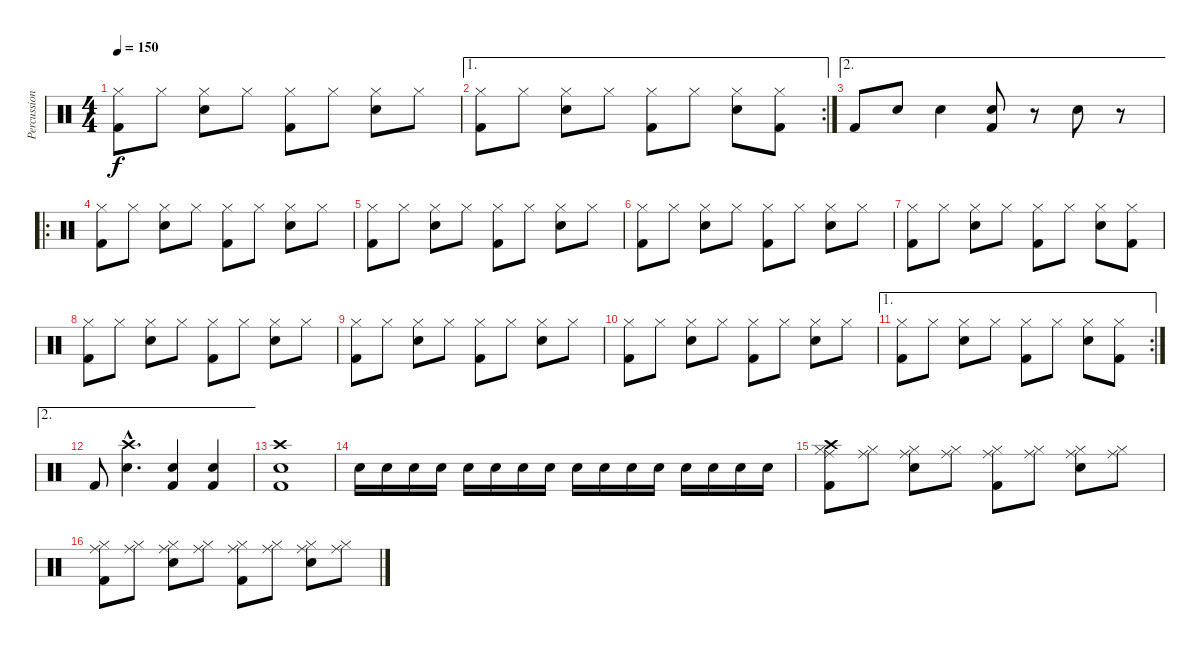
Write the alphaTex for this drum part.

\track ("Percussion" "Percussion") {instrument percussion}
\staff {score}
\articulation defaults
\ts (4 4)
\tempo 150
\clef neutral
\ks c
("Hi-Hat (closed)" "Kick (hit) 2").8{dy f} "Hi-Hat (closed)".8 ("Hi-Hat (closed)" "Electric Snare (hit)").8 "Hi-Hat (closed)".8 ("Hi-Hat (closed)" "Kick (hit) 2").8 "Hi-Hat (closed)".8 ("Hi-Hat (closed)" "Electric Snare (hit)").8 "Hi-Hat (closed)".8 |
\ae 1
\rc 2
("Hi-Hat (closed)" "Kick (hit) 2").8 "Hi-Hat (closed)".8 ("Hi-Hat (closed)" "Electric Snare (hit)").8 "Hi-Hat (closed)".8 ("Hi-Hat (closed)" "Kick (hit) 2").8 "Hi-Hat (closed)".8 ("Hi-Hat (closed)" "Electric Snare (hit)").8 ("Hi-Hat (closed)" "Kick (hit) 2").8 |
\ae 2 "Kick (hit) 2".8 "Electric Snare (hit)".8 "Electric Snare (hit)".4
("Electric Snare (hit)" "Kick (hit) 2").8 r.8 "Electric Snare (hit)".8 r.8 |
\ro
("Hi-Hat (closed)" "Kick (hit) 2").8 "Hi-Hat (closed)".8 ("Hi-Hat (closed)" "Electric Snare (hit)").8 "Hi-Hat (closed)".8 ("Hi-Hat (closed)" "Kick (hit) 2").8 "Hi-Hat (closed)".8 ("Hi-Hat (closed)" "Electric Snare (hit)").8 "Hi-Hat (closed)".8 |
("Hi-Hat (closed)" "Kick (hit) 2").8 "Hi-Hat (closed)".8 ("Hi-Hat (closed)" "Electric Snare (hit)").8 "Hi-Hat (closed)".8 ("Hi-Hat (closed)" "Kick (hit) 2").8 "Hi-Hat (closed)".8 ("Hi-Hat (closed)" "Electric Snare (hit)").8 "Hi-Hat (closed)".8 |
("Hi-Hat (closed)" "Kick (hit) 2").8 "Hi-Hat (closed)".8 ("Hi-Hat (closed)" "Electric Snare (hit)").8 "Hi-Hat (closed)".8 ("Hi-Hat (closed)" "Kick (hit) 2").8 "Hi-Hat (closed)".8 ("Hi-Hat (closed)" "Electric Snare (hit)").8 "Hi-Hat (closed)".8 |
("Hi-Hat (closed)" "Kick (hit) 2").8 "Hi-Hat (closed)".8 ("Hi-Hat (closed)" "Electric Snare (hit)").8 "Hi-Hat (closed)".8 ("Hi-Hat (closed)" "Kick (hit) 2").8 "Hi-Hat (closed)".8 ("Hi-Hat (closed)" "Electric Snare (hit)").8 ("Hi-Hat (closed)" "Kick (hit) 2").8 |
("Hi-Hat (closed)" "Kick (hit) 2").8 "Hi-Hat (closed)".8 ("Hi-Hat (closed)" "Electric Snare (hit)").8 "Hi-Hat (closed)".8 ("Hi-Hat (closed)" "Kick (hit) 2").8 "Hi-Hat (closed)".8 ("Hi-Hat (closed)" "Electric Snare (hit)").8 "Hi-Hat (closed)".8 |
("Hi-Hat (closed)" "Kick (hit) 2").8 "Hi-Hat (closed)".8 ("Hi-Hat (closed)" "Electric Snare (hit)").8 "Hi-Hat (closed)".8 ("Hi-Hat (closed)" "Kick (hit) 2").8 "Hi-Hat (closed)".8 ("Hi-Hat (closed)" "Electric Snare (hit)").8 "Hi-Hat (closed)".8 |
("Hi-Hat (closed)" "Kick (hit) 2").8 "Hi-Hat (closed)".8 ("Hi-Hat (closed)" "Electric Snare (hit)").8 "Hi-Hat (closed)".8 ("Hi-Hat (closed)" "Kick (hit) 2").8 "Hi-Hat (closed)".8 ("Hi-Hat (closed)" "Electric Snare (hit)").8 "Hi-Hat (closed)".8 |
\ae 1
\rc 2
("Hi-Hat (closed)" "Kick (hit) 2").8 "Hi-Hat (closed)".8 ("Hi-Hat (closed)" "Electric Snare (hit)").8 "Hi-Hat (closed)".8 ("Hi-Hat (closed)" "Kick (hit) 2").8 "Hi-Hat (closed)".8 ("Hi-Hat (closed)" "Electric Snare (hit)").8 ("Hi-Hat (closed)" "Kick (hit) 2").8 |
\ae 2 "Kick (hit) 2".8
("Crash high (hit)"{hac} "Electric Snare (hit)"{hac}).4{d} ("Kick (hit) 2" "Electric Snare (hit)").4 ("Kick (hit) 2" "Electric Snare (hit)").4 |
("Crash high (hit)" "Kick (hit) 2" "Electric Snare (hit)").1 |
"Electric Snare (hit)".16 "Electric Snare (hit)".16 "Electric Snare (hit)".16 "Electric Snare (hit)".16 "Electric Snare (hit)".16 "Electric Snare (hit)".16 "Electric Snare (hit)".16 "Electric Snare (hit)".16 "Electric Snare (hit)".16 "Electric Snare (hit)".16 "Electric Snare (hit)".16 "Electric Snare (hit)".16 "Electric Snare (hit)".16 "Electric Snare (hit)".16 "Electric Snare (hit)".16 "Electric Snare (hit)".16 |
("Hi-Hat (closed)" "Crash high (hit)" "Ride (middle)" "Kick (hit) 2").8 ("Hi-Hat (closed)" "Ride (middle)").8 ("Hi-Hat (closed)" "Ride (middle)" "Electric Snare (hit)").8 ("Hi-Hat (closed)" "Ride (middle)").8 ("Hi-Hat (closed)" "Ride (middle)" "Kick (hit) 2").8 ("Hi-Hat (closed)" "Ride (middle)").8 ("Hi-Hat (closed)" "Ride (middle)" "Electric Snare (hit)").8 ("Hi-Hat (closed)" "Ride (middle)").8 |
("Hi-Hat (closed)" "Ride (middle)" "Kick (hit) 2").8 ("Hi-Hat (closed)" "Ride (middle)").8 ("Hi-Hat (closed)" "Ride (middle)" "Electric Snare (hit)").8 ("Hi-Hat (closed)" "Ride (middle)").8 ("Hi-Hat (closed)" "Ride (middle)" "Kick (hit) 2").8 ("Hi-Hat (closed)" "Ride (middle)").8 ("Hi-Hat (closed)" "Ride (middle)" "Electric Snare (hit)").8 ("Hi-Hat (closed)" "Ride (middle)").8
